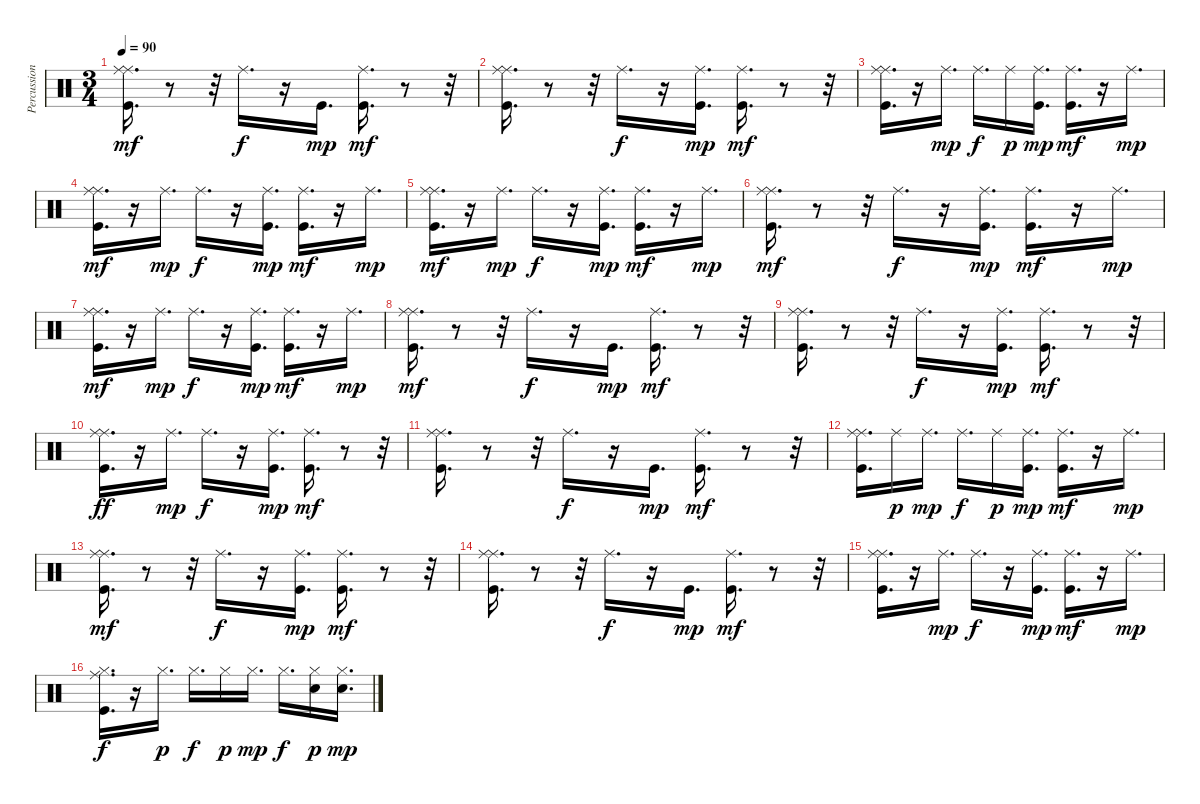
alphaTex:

\track ("Percussion" "Percussion") {instrument percussion}
\staff {score}
\articulation defaults
\ts (3 4)
\tempo 90
\clef neutral
\ks c
("Ride (middle)" "Kick (hit)" "Ride (middle)").16{d dy mf} r.8 r.32 "Ride (middle)".16{d dy f} r.16 "Kick (hit)".16{d dy mp} ("Kick (hit)" "Ride (middle)").16{d dy mf} r.8 r.32 |
("Ride (middle)" "Kick (hit)" "Ride (middle)").16{d} r.8 r.32 "Ride (middle)".16{d dy f} r.16 ("Kick (hit)" "Ride (middle)").16{d dy mp} ("Kick (hit)" "Ride (middle)").16{d dy mf} r.8 r.32 |
("Ride (middle)" "Kick (hit)" "Ride (middle)").16{d} r.16 "Ride (middle)".16{d dy mp} "Ride (middle)".16{d dy f} "Ride (middle)".16{dy p} ("Kick (hit)" "Ride (middle)").16{d dy mp} ("Kick (hit)" "Ride (middle)").16{d dy mf} r.16 "Ride (middle)".16{d dy mp} |
("Ride (middle)" "Kick (hit)" "Ride (middle)").16{d dy mf} r.16 "Ride (middle)".16{d dy mp} "Ride (middle)".16{d dy f} r.16 ("Kick (hit)" "Ride (middle)").16{d dy mp} ("Kick (hit)" "Ride (middle)").16{d dy mf} r.16 "Ride (middle)".16{d dy mp} |
("Ride (middle)" "Kick (hit)" "Ride (middle)").16{d dy mf} r.16 "Ride (middle)".16{d dy mp} "Ride (middle)".16{d dy f} r.16 ("Kick (hit)" "Ride (middle)").16{d dy mp} ("Kick (hit)" "Ride (middle)").16{d dy mf} r.16 "Ride (middle)".16{d dy mp} |
("Ride (middle)" "Kick (hit)" "Ride (middle)").16{d dy mf} r.8 r.32 "Ride (middle)".16{d dy f} r.16 ("Kick (hit)" "Ride (middle)").16{d dy mp} ("Kick (hit)" "Ride (middle)").16{d dy mf} r.16 "Ride (middle)".16{d dy mp} |
("Ride (middle)" "Kick (hit)" "Ride (middle)").16{d dy mf} r.16 "Ride (middle)".16{d dy mp} "Ride (middle)".16{d dy f} r.16 ("Kick (hit)" "Ride (middle)").16{d dy mp} ("Kick (hit)" "Ride (middle)").16{d dy mf} r.16 "Ride (middle)".16{d dy mp} |
("Ride (middle)" "Kick (hit)" "Ride (middle)").16{d dy mf} r.8 r.32 "Ride (middle)".16{d dy f} r.16 "Kick (hit)".16{d dy mp} ("Kick (hit)" "Ride (middle)").16{d dy mf} r.8 r.32 |
("Ride (middle)" "Kick (hit)" "Ride (middle)").16{d} r.8 r.32 "Ride (middle)".16{d dy f} r.16 ("Kick (hit)" "Ride (middle)").16{d dy mp} ("Kick (hit)" "Ride (middle)").16{d dy mf} r.8 r.32 |
("Ride (middle)" "Kick (hit)" "Ride (middle)").16{d dy ff} r.16 "Ride (middle)".16{d dy mp} "Ride (middle)".16{d dy f} r.16 ("Kick (hit)" "Ride (middle)").16{d dy mp} ("Kick (hit)" "Ride (middle)").16{d dy mf} r.8 r.32 |
("Ride (middle)" "Kick (hit)" "Ride (middle)").16{d} r.8 r.32 "Ride (middle)".16{d dy f} r.16 "Kick (hit)".16{d dy mp} ("Kick (hit)" "Ride (middle)").16{d dy mf} r.8 r.32 |
("Ride (middle)" "Kick (hit)" "Ride (middle)").16{d} "Ride (middle)".16{dy p} "Ride (middle)".16{d dy mp} "Ride (middle)".16{d dy f} "Ride (middle)".16{dy p} ("Kick (hit)" "Ride (middle)").16{d dy mp} ("Kick (hit)" "Ride (middle)").16{d dy mf} r.16 "Ride (middle)".16{d dy mp} |
("Ride (middle)" "Kick (hit)" "Ride (middle)").16{d dy mf} r.8 r.32 "Ride (middle)".16{d dy f} r.16 ("Kick (hit)" "Ride (middle)").16{d dy mp} ("Kick (hit)" "Ride (middle)").16{d dy mf} r.8 r.32 |
("Ride (middle)" "Kick (hit)" "Ride (middle)").16{d} r.8 r.32 "Ride (middle)".16{d dy f} r.16 "Kick (hit)".16{d dy mp} ("Kick (hit)" "Ride (middle)").16{d dy mf} r.8 r.32 |
("Ride (middle)" "Kick (hit)" "Ride (middle)").16{d} r.16 "Ride (middle)".16{d dy mp} "Ride (middle)".16{d dy f} r.16 ("Kick (hit)" "Ride (middle)").16{d dy mp} ("Kick (hit)" "Ride (middle)").16{d dy mf} r.16 "Ride (middle)".16{d dy mp} |
("Ride (middle)" "Kick (hit)" "Hi-Hat (closed)").16{d dy f} r.16 "Hi-Hat (closed)".16{d dy p} "Hi-Hat (closed)".16{d dy f} "Hi-Hat (closed)".16{dy p} "Hi-Hat (closed)".16{d dy mp} "Hi-Hat (closed)".16{d dy f} ("Snare (hit) 2" "Hi-Hat (closed)").16{dy p} ("Snare (hit) 2" "Hi-Hat (closed)").16{d dy mp}
